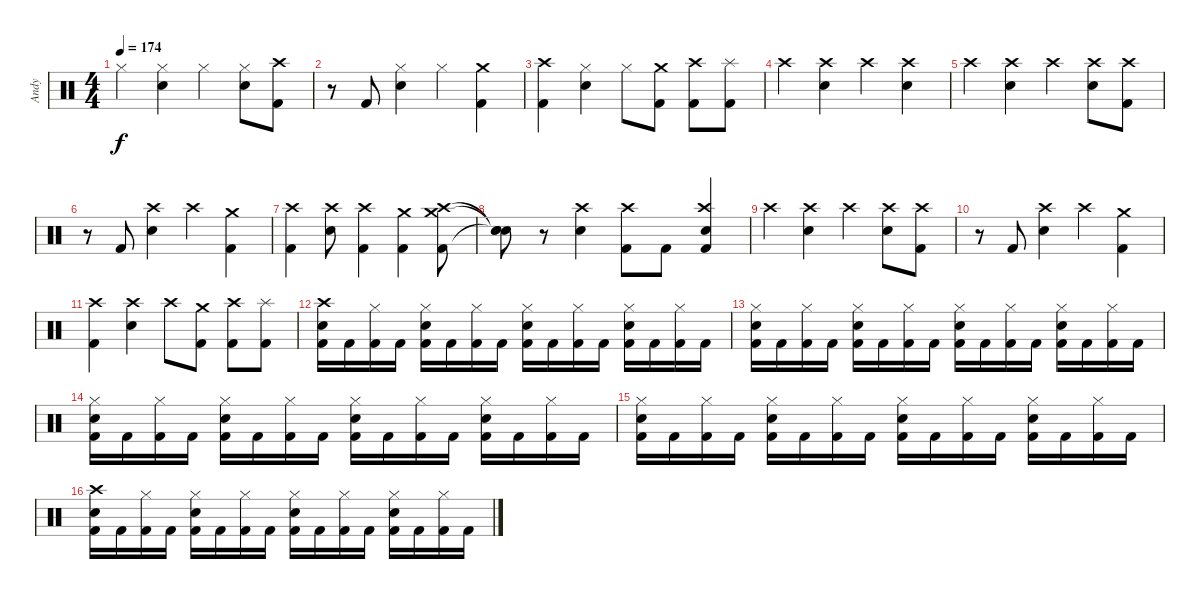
\track ("Andy" "Andy") {instrument percussion}
\staff {score}
\articulation defaults
\ts (4 4)
\tempo 174
\clef neutral
\ks c "Hi-Hat (closed)".4{dy f}
("Electric Snare (hit)" "Hi-Hat (closed)").4 "Hi-Hat (closed)".4 ("Electric Snare (hit)" "Hi-Hat (closed)").8 ("Crash high (hit)" "Kick (hit) 2").8 |
r.8 "Kick (hit) 2".8 ("Electric Snare (hit)" "Hi-Hat (closed)").4 "Hi-Hat (closed)".4 ("Crash medium (hit)" "Kick (hit) 2").4 |
("Crash high (hit)" "Kick (hit) 2").4 ("Electric Snare (hit)" "Hi-Hat (closed)").4 "Hi-Hat (closed)".8 ("Crash medium (hit)" "Kick (hit) 2").8 ("Crash high (hit)" "Kick (hit) 2").8 ("Splash (hit)" "Kick (hit) 2").8 |
"Crash high (hit)".4 ("Electric Snare (hit)" "Crash high (hit)").4 "Crash high (hit)".4 ("Electric Snare (hit)" "Crash high (hit)").4 |
"Crash high (hit)".4 ("Electric Snare (hit)" "Crash high (hit)").4 "Crash high (hit)".4 ("Electric Snare (hit)" "Crash high (hit)").8 ("Crash high (hit)" "Kick (hit) 2").8 |
r.8 "Kick (hit) 2".8 ("Electric Snare (hit)" "Crash high (hit)").4 "Crash high (hit)".4 ("Crash medium (hit)" "Kick (hit) 2").4 |
("Crash high (hit)" "Kick (hit) 2").4 ("Electric Snare (hit)" "Crash high (hit)").8 ("Crash high (hit)" "Kick (hit) 2").4 ("Crash medium (hit)" "Kick (hit) 2").4 ("Crash medium (hit)" "Crash high (hit)" "Kick (hit) 2").8 |
("Snare (hit)"{t} "Snare (hit)"{t} "Snare (hit)"{t}).8 r.8 ("Electric Snare (hit)" "Crash high (hit)").4 ("Crash high (hit)" "Kick (hit) 2").8 "Kick (hit) 2".8 ("Electric Snare (hit)" "Crash high (hit)" "Kick (hit) 2").4 |
"Crash high (hit)".4 ("Electric Snare (hit)" "Crash high (hit)").4 "Crash high (hit)".4 ("Electric Snare (hit)" "Crash high (hit)").8 ("Crash high (hit)" "Kick (hit) 2").8 |
r.8 "Kick (hit) 2".8 ("Electric Snare (hit)" "Crash high (hit)").4 "Crash high (hit)".4 ("Crash medium (hit)" "Kick (hit) 2").4 |
("Crash high (hit)" "Kick (hit) 2").4 ("Electric Snare (hit)" "Crash high (hit)").4 "Crash high (hit)".8 ("Crash medium (hit)" "Kick (hit) 2").8 ("Crash high (hit)" "Kick (hit) 2").8 ("Splash (hit)" "Kick (hit) 2").8 |
("Electric Snare (hit)" "Crash high (hit)" "Kick (hit) 2").16 "Kick (hit) 2".16 ("Hi-Hat (closed)" "Kick (hit) 2").16 "Kick (hit) 2".16 ("Electric Snare (hit)" "Hi-Hat (closed)" "Kick (hit) 2").16 "Kick (hit) 2".16 ("Hi-Hat (closed)" "Kick (hit) 2").16 "Kick (hit) 2".16 ("Electric Snare (hit)" "Hi-Hat (closed)" "Kick (hit) 2").16 "Kick (hit) 2".16 ("Hi-Hat (closed)" "Kick (hit) 2").16 "Kick (hit) 2".16 ("Electric Snare (hit)" "Hi-Hat (closed)" "Kick (hit) 2").16 "Kick (hit) 2".16 ("Hi-Hat (closed)" "Kick (hit) 2").16 "Kick (hit) 2".16 |
("Electric Snare (hit)" "Hi-Hat (closed)" "Kick (hit) 2").16 "Kick (hit) 2".16 ("Hi-Hat (closed)" "Kick (hit) 2").16 "Kick (hit) 2".16 ("Electric Snare (hit)" "Hi-Hat (closed)" "Kick (hit) 2").16 "Kick (hit) 2".16 ("Hi-Hat (closed)" "Kick (hit) 2").16 "Kick (hit) 2".16 ("Electric Snare (hit)" "Hi-Hat (closed)" "Kick (hit) 2").16 "Kick (hit) 2".16 ("Hi-Hat (closed)" "Kick (hit) 2").16 "Kick (hit) 2".16 ("Electric Snare (hit)" "Hi-Hat (closed)" "Kick (hit) 2").16 "Kick (hit) 2".16 ("Hi-Hat (closed)" "Kick (hit) 2").16 "Kick (hit) 2".16 |
("Electric Snare (hit)" "Hi-Hat (closed)" "Kick (hit) 2").16 "Kick (hit) 2".16 ("Hi-Hat (closed)" "Kick (hit) 2").16 "Kick (hit) 2".16 ("Electric Snare (hit)" "Hi-Hat (closed)" "Kick (hit) 2").16 "Kick (hit) 2".16 ("Hi-Hat (closed)" "Kick (hit) 2").16 "Kick (hit) 2".16 ("Electric Snare (hit)" "Hi-Hat (closed)" "Kick (hit) 2").16 "Kick (hit) 2".16 ("Hi-Hat (closed)" "Kick (hit) 2").16 "Kick (hit) 2".16 ("Electric Snare (hit)" "Hi-Hat (closed)" "Kick (hit) 2").16 "Kick (hit) 2".16 ("Hi-Hat (closed)" "Kick (hit) 2").16 "Kick (hit) 2".16 |
("Electric Snare (hit)" "Hi-Hat (closed)" "Kick (hit) 2").16 "Kick (hit) 2".16 ("Hi-Hat (closed)" "Kick (hit) 2").16 "Kick (hit) 2".16 ("Electric Snare (hit)" "Hi-Hat (closed)" "Kick (hit) 2").16 "Kick (hit) 2".16 ("Hi-Hat (closed)" "Kick (hit) 2").16 "Kick (hit) 2".16 ("Electric Snare (hit)" "Hi-Hat (closed)" "Kick (hit) 2").16 "Kick (hit) 2".16 ("Hi-Hat (closed)" "Kick (hit) 2").16 "Kick (hit) 2".16 ("Electric Snare (hit)" "Hi-Hat (closed)" "Kick (hit) 2").16 "Kick (hit) 2".16 ("Hi-Hat (closed)" "Kick (hit) 2").16 "Kick (hit) 2".16 |
("Electric Snare (hit)" "Crash high (hit)" "Kick (hit) 2").16 "Kick (hit) 2".16 ("Hi-Hat (closed)" "Kick (hit) 2").16 "Kick (hit) 2".16 ("Electric Snare (hit)" "Hi-Hat (closed)" "Kick (hit) 2").16 "Kick (hit) 2".16 ("Hi-Hat (closed)" "Kick (hit) 2").16 "Kick (hit) 2".16 ("Electric Snare (hit)" "Hi-Hat (closed)" "Kick (hit) 2").16 "Kick (hit) 2".16 ("Hi-Hat (closed)" "Kick (hit) 2").16 "Kick (hit) 2".16 ("Electric Snare (hit)" "Hi-Hat (closed)" "Kick (hit) 2").16 "Kick (hit) 2".16 ("Hi-Hat (closed)" "Kick (hit) 2").16 "Kick (hit) 2".16
